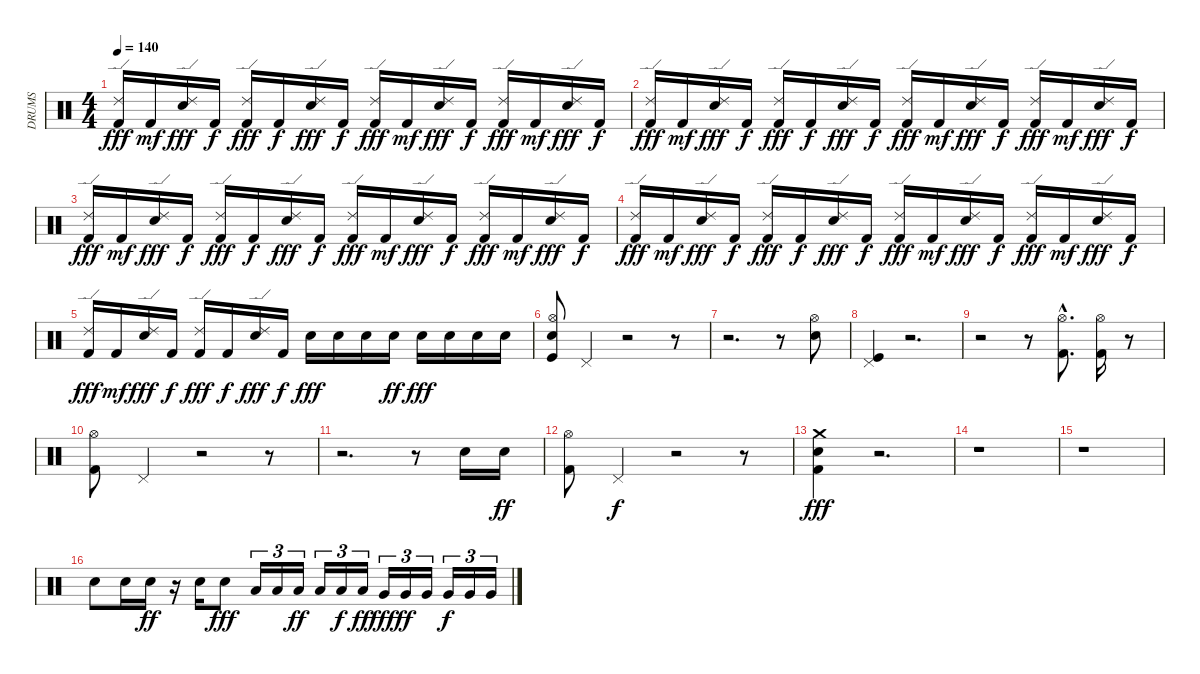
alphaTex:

\track ("DRUMS" "DRUMS") {instrument percussion}
\staff {score}
\articulation defaults
\ts (4 4)
\tempo 140
\clef neutral
\ks c
("Ride (edge) 2" "Kick (hit) 2").16{dy fff} "Kick (hit) 2".16{dy mf} ("Ride (edge) 2" "Electric Snare (hit)").16{dy fff} "Kick (hit) 2".16{dy f} ("Ride (edge) 2" "Kick (hit) 2").16{dy fff} "Kick (hit) 2".16{dy f} ("Ride (edge) 2" "Electric Snare (hit)").16{dy fff} "Kick (hit) 2".16{dy f} ("Ride (edge) 2" "Kick (hit) 2").16{dy fff} "Kick (hit) 2".16{dy mf} ("Ride (edge) 2" "Electric Snare (hit)").16{dy fff} "Kick (hit) 2".16{dy f} ("Ride (edge) 2" "Kick (hit) 2").16{dy fff} "Kick (hit) 2".16{dy mf} ("Electric Snare (hit)" "Ride (edge) 2").16{dy fff} "Kick (hit) 2".16{dy f} |
("Ride (edge) 2" "Kick (hit) 2").16{dy fff} "Kick (hit) 2".16{dy mf} ("Ride (edge) 2" "Electric Snare (hit)").16{dy fff} "Kick (hit) 2".16{dy f} ("Ride (edge) 2" "Kick (hit) 2").16{dy fff} "Kick (hit) 2".16{dy f} ("Ride (edge) 2" "Electric Snare (hit)").16{dy fff} "Kick (hit) 2".16{dy f} ("Ride (edge) 2" "Kick (hit) 2").16{dy fff} "Kick (hit) 2".16{dy mf} ("Ride (edge) 2" "Electric Snare (hit)").16{dy fff} "Kick (hit) 2".16{dy f} ("Ride (edge) 2" "Kick (hit) 2").16{dy fff} "Kick (hit) 2".16{dy mf} ("Electric Snare (hit)" "Ride (edge) 2").16{dy fff} "Kick (hit) 2".16{dy f} |
("Ride (edge) 2" "Kick (hit) 2").16{dy fff} "Kick (hit) 2".16{dy mf} ("Ride (edge) 2" "Electric Snare (hit)").16{dy fff} "Kick (hit) 2".16{dy f} ("Ride (edge) 2" "Kick (hit) 2").16{dy fff} "Kick (hit) 2".16{dy f} ("Ride (edge) 2" "Electric Snare (hit)").16{dy fff} "Kick (hit) 2".16{dy f} ("Ride (edge) 2" "Kick (hit) 2").16{dy fff} "Kick (hit) 2".16{dy mf} ("Ride (edge) 2" "Electric Snare (hit)").16{dy fff} "Kick (hit) 2".16{dy f} ("Ride (edge) 2" "Kick (hit) 2").16{dy fff} "Kick (hit) 2".16{dy mf} ("Electric Snare (hit)" "Ride (edge) 2").16{dy fff} "Kick (hit) 2".16{dy f} |
("Ride (edge) 2" "Kick (hit) 2").16{dy fff} "Kick (hit) 2".16{dy mf} ("Ride (edge) 2" "Electric Snare (hit)").16{dy fff} "Kick (hit) 2".16{dy f} ("Ride (edge) 2" "Kick (hit) 2").16{dy fff} "Kick (hit) 2".16{dy f} ("Ride (edge) 2" "Electric Snare (hit)").16{dy fff} "Kick (hit) 2".16{dy f} ("Ride (edge) 2" "Kick (hit) 2").16{dy fff} "Kick (hit) 2".16{dy mf} ("Ride (edge) 2" "Electric Snare (hit)").16{dy fff} "Kick (hit) 2".16{dy f} ("Ride (edge) 2" "Kick (hit) 2").16{dy fff} "Kick (hit) 2".16{dy mf} ("Electric Snare (hit)" "Ride (edge) 2").16{dy fff} "Kick (hit) 2".16{dy f} |
("Ride (edge) 2" "Kick (hit) 2").16{dy fff} "Kick (hit) 2".16{dy mf} ("Ride (edge) 2" "Electric Snare (hit)").16{dy fff} "Kick (hit) 2".16{dy f} ("Ride (edge) 2" "Kick (hit) 2").16{dy fff} "Kick (hit) 2".16{dy f} ("Ride (edge) 2" "Electric Snare (hit)").16{dy fff} "Kick (hit) 2".16{dy f} "Electric Snare (hit)".16{dy fff} "Electric Snare (hit)".16 "Electric Snare (hit)".16 "Electric Snare (hit)".16{dy ff} "Electric Snare (hit)".16{dy fff} "Electric Snare (hit)".16 "Electric Snare (hit)".16 "Electric Snare (hit)".16 |
("Hi-Hat (open)" "Electric Snare (hit)" "Kick (hit)").8 "Pedal Hi-Hat (hit)".4 r.2 r.8 |
r.2{d} r.8 ("Hi-Hat (open)" "Electric Snare (hit)").8 |
("Pedal Hi-Hat (hit)" "Kick (hit)").4 r.2{d} |
r.2 r.8 ("Hi-Hat (open)"{hac} "Kick (hit) 2"{hac}).8{d} ("Hi-Hat (open)" "Kick (hit) 2").16 r.8 |
("Hi-Hat (open)" "Kick (hit) 2").8 "Pedal Hi-Hat (hit)".4 r.2 r.8 |
r.2{d} r.8 "Electric Snare (hit)".16 "Electric Snare (hit)".16{dy ff} |
("Hi-Hat (open)" "Kick (hit) 2").8 "Pedal Hi-Hat (hit)".4{dy f} r.2 r.8 |
("Crash medium (hit)" "Electric Snare (hit)" "Kick (hit) 2").4{dy fff} r.2{d} |
r.1 |
r.1 |
"Electric Snare (hit)".8 "Electric Snare (hit)".16 "Electric Snare (hit)".16{dy ff} r.16 "Electric Snare (hit)".16 "Electric Snare (hit)".8{dy fff} "Low Tom (hit)".16{tu (3 2)} "Low Tom (hit)".16{tu (3 2)} "Low Tom (hit)".16{tu (3 2) dy ff} "Low Tom (hit)".16{tu (3 2)} "Low Tom (hit)".16{tu (3 2) dy f} "Low Tom (hit)".16{tu (3 2) dy ff} "Very Low Tom (hit)".16{tu (3 2) dy fff} "Very Low Tom (hit)".16{tu (3 2) dy ff} "Very Low Tom (hit)".16{tu (3 2)} "Very Low Tom (hit)".16{tu (3 2) dy f} "Very Low Tom (hit)".16{tu (3 2)} "Very Low Tom (hit)".16{tu (3 2)}
